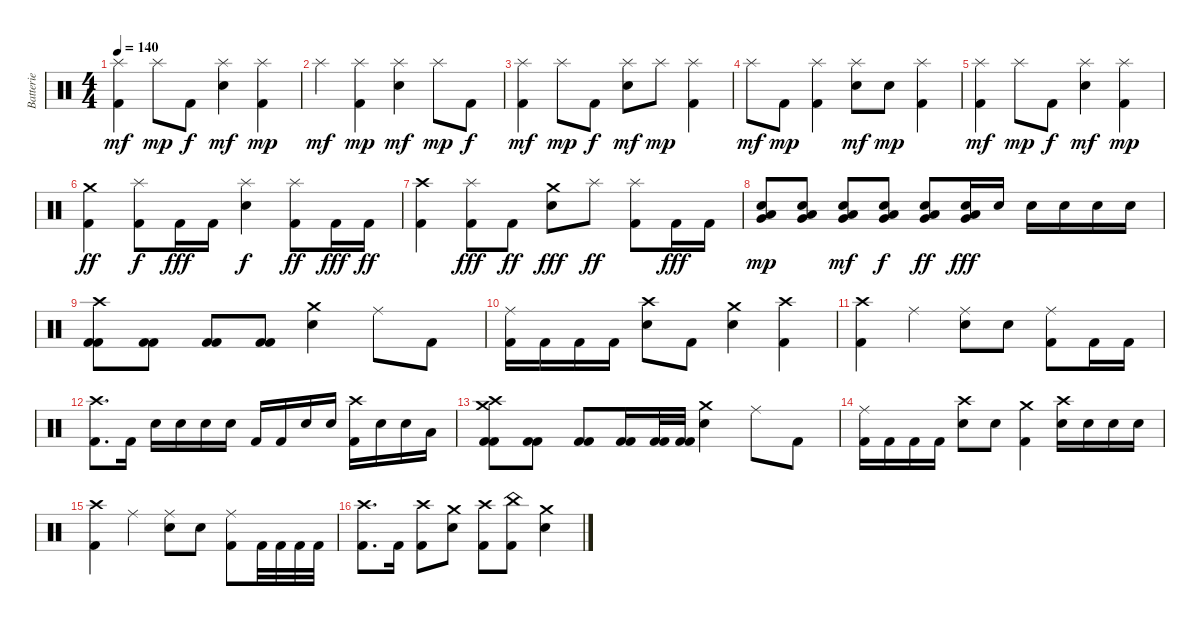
\track ("Batterie" "Batterie") {instrument percussion}
\staff {score}
\articulation defaults
\ts (4 4)
\tempo 140
\clef neutral
\ks c
("Splash (hit)" "Kick (hit) 2").4{dy mf} "Splash (hit)".8{dy mp} "Kick (hit) 2".8{dy f} ("Splash (hit)" "Electric Snare (hit)").4{dy mf} ("Splash (hit)" "Kick (hit) 2").4{dy mp} |
"Splash (hit)".4{dy mf} ("Splash (hit)" "Kick (hit) 2").4{dy mp} ("Splash (hit)" "Electric Snare (hit)").4{dy mf} "Splash (hit)".8{dy mp} "Kick (hit) 2".8{dy f} |
("Splash (hit)" "Kick (hit) 2").4{dy mf} "Splash (hit)".8{dy mp} "Kick (hit) 2".8{dy f} ("Splash (hit)" "Electric Snare (hit)").8{dy mf} "Splash (hit)".8{dy mp} ("Splash (hit)" "Kick (hit) 2").4 |
"Splash (hit)".8{dy mf} "Kick (hit) 2".8{dy mp} ("Splash (hit)" "Kick (hit) 2").4 ("Splash (hit)" "Electric Snare (hit)").8{dy mf} "Electric Snare (hit)".8{dy mp} ("Splash (hit)" "Kick (hit) 2").4 |
("Splash (hit)" "Kick (hit) 2").4{dy mf} "Splash (hit)".8{dy mp} "Kick (hit) 2".8{dy f} ("Splash (hit)" "Electric Snare (hit)").4{dy mf} ("Splash (hit)" "Kick (hit) 2").4{dy mp} |
("Crash medium (hit)" "Kick (hit) 2").4{dy ff} ("Splash (hit)" "Kick (hit) 2").8{dy f} "Kick (hit) 2".16{dy fff} "Kick (hit) 2".16 ("Splash (hit)" "Electric Snare (hit)").4{dy f} ("Splash (hit)" "Kick (hit) 2").8{dy ff} "Kick (hit) 2".16{dy fff} "Kick (hit) 2".16{dy ff} |
("Crash high (hit)" "Kick (hit) 2").4 ("Splash (hit)" "Kick (hit) 2").8{dy fff} "Kick (hit) 2".8{dy ff} ("Crash medium (hit)" "Electric Snare (hit)").8{dy fff} "Splash (hit)".8{dy ff} ("Splash (hit)" "Kick (hit) 2").8 "Kick (hit) 2".16{dy fff} "Kick (hit) 2".16 |
("Electric Snare (hit)" "Low Floor Tom (hit)" "Very Low Tom (hit)").8{dy mp} ("Electric Snare (hit)" "Low Floor Tom (hit)" "Very Low Tom (hit)").8 ("Electric Snare (hit)" "Low Floor Tom (hit)" "Very Low Tom (hit)").8{dy mf} ("Electric Snare (hit)" "Low Floor Tom (hit)" "Very Low Tom (hit)").8{dy f} ("Electric Snare (hit)" "Low Floor Tom (hit)" "Very Low Tom (hit)").8{dy ff} ("Electric Snare (hit)" "Low Floor Tom (hit)" "Very Low Tom (hit)").16{dy fff} "Electric Snare (hit)".16 "Electric Snare (hit)".16 "Electric Snare (hit)".16 "Electric Snare (hit)".16 "Electric Snare (hit)".16 |
("Crash high (hit)" "Kick (hit) 2" "Kick (hit) 2").8 ("Kick (hit) 2" "Kick (hit) 2").8 ("Kick (hit) 2" "Kick (hit) 2").8 ("Kick (hit) 2" "Kick (hit) 2").8 ("Crash medium (hit)" "Electric Snare (hit)").4 "Ride (middle)".8 "Kick (hit) 2".8 |
("Ride (middle)" "Kick (hit) 2").16 "Kick (hit) 2".16 "Kick (hit) 2".16 "Kick (hit) 2".16 ("Crash high (hit)" "Electric Snare (hit)").8 "Kick (hit) 2".8 ("Crash medium (hit)" "Electric Snare (hit)").4 ("Crash high (hit)" "Kick (hit) 2").4 |
("Crash high (hit)" "Kick (hit) 2").4 "Ride (middle)".4 ("Ride (middle)" "Electric Snare (hit)").8 "Electric Snare (hit)".8 ("Ride (middle)" "Kick (hit) 2").8 "Kick (hit) 2".16 "Kick (hit) 2".16 |
("Crash high (hit)" "Kick (hit) 2").8{d} "Kick (hit) 2".16 "Electric Snare (hit)".16 "Electric Snare (hit)".16 "Electric Snare (hit)".16 "Electric Snare (hit)".16 "Kick (hit) 2".16 "Kick (hit) 2".16 "Electric Snare (hit)".16 "Electric Snare (hit)".16 ("Crash high (hit)" "Kick (hit) 2").16 "Electric Snare (hit)".16 "Electric Snare (hit)".16 "Low Tom (hit)".16 |
("Crash high (hit)" "Crash medium (hit)" "Kick (hit) 2" "Kick (hit) 2").8 ("Kick (hit) 2" "Kick (hit) 2").8 ("Kick (hit) 2" "Kick (hit) 2").8 ("Kick (hit) 2" "Kick (hit) 2").16 ("Kick (hit) 2" "Kick (hit) 2").32 ("Kick (hit) 2" "Kick (hit) 2").32 ("Crash medium (hit)" "Electric Snare (hit)").4 "Ride (middle)".8 "Kick (hit) 2".8 |
("Ride (middle)" "Kick (hit) 2").16 "Kick (hit) 2".16 "Kick (hit) 2".16 "Kick (hit) 2".16 ("Crash high (hit)" "Electric Snare (hit)").8 "Electric Snare (hit)".8 ("Crash medium (hit)" "Kick (hit) 2").4 ("Crash high (hit)" "Electric Snare (hit)").16 "Electric Snare (hit)".16 "Electric Snare (hit)".16 "Electric Snare (hit)".16 |
("Crash high (hit)" "Kick (hit) 2").4 "Ride (middle)".4 ("Ride (middle)" "Electric Snare (hit)").8 "Electric Snare (hit)".8 ("Ride (middle)" "Kick (hit) 2").8 "Kick (hit) 2".32 "Kick (hit) 2".32 "Kick (hit) 2".32 "Kick (hit) 2".32 |
("Crash high (hit)" "Kick (hit) 2").8{d} "Kick (hit) 2".16 ("Crash high (hit)" "Kick (hit) 2").8 ("Crash medium (hit)" "Electric Snare (hit)").8 ("Crash high (hit)" "Kick (hit) 2").8 ("China (hit)" "Kick (hit) 2").8 ("Crash medium (hit)" "Electric Snare (hit)").4
